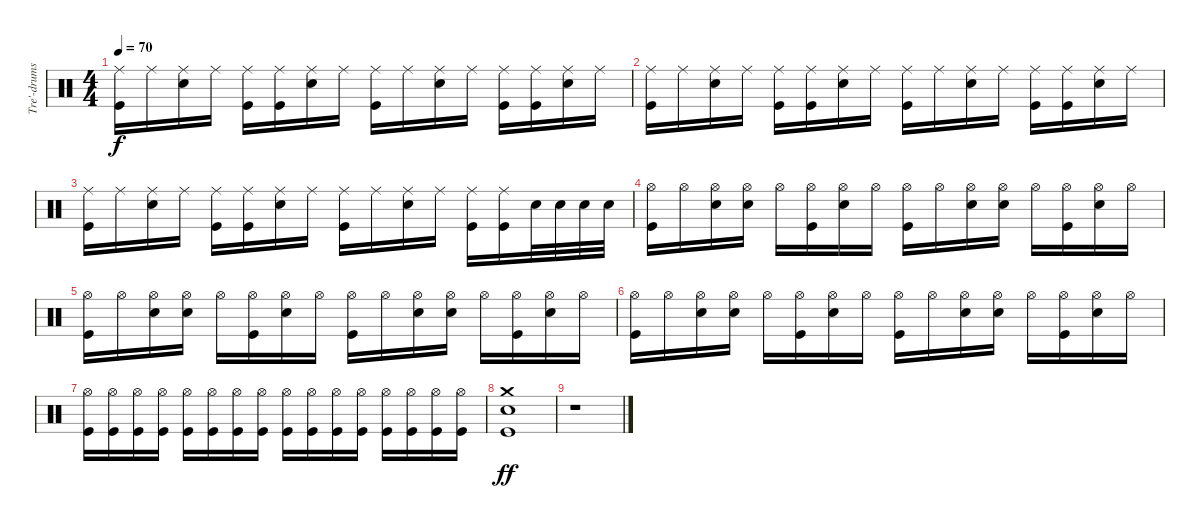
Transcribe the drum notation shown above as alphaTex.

\track ("Tre'-drums" "Tre'-drums") {instrument percussion}
\staff {score}
\articulation defaults
\ts (4 4)
\tempo 70
\clef neutral
\ks c
("Ride (middle)" "Kick (hit)").16{dy f} "Ride (middle)".16 ("Ride (middle)" "Snare (hit) 2").16 "Ride (middle)".16 ("Ride (middle)" "Kick (hit)").16 ("Ride (middle)" "Kick (hit)").16 ("Ride (middle)" "Snare (hit) 2").16 "Ride (middle)".16 ("Ride (middle)" "Kick (hit)").16 "Ride (middle)".16 ("Ride (middle)" "Snare (hit) 2").16 "Ride (middle)".16 ("Ride (middle)" "Kick (hit)").16 ("Ride (middle)" "Kick (hit)").16 ("Ride (middle)" "Snare (hit) 2").16 "Ride (middle)".16 |
("Ride (middle)" "Kick (hit)").16 "Ride (middle)".16 ("Ride (middle)" "Snare (hit) 2").16 "Ride (middle)".16 ("Ride (middle)" "Kick (hit)").16 ("Ride (middle)" "Kick (hit)").16 ("Ride (middle)" "Snare (hit) 2").16 "Ride (middle)".16 ("Ride (middle)" "Kick (hit)").16 "Ride (middle)".16 ("Ride (middle)" "Snare (hit) 2").16 "Ride (middle)".16 ("Ride (middle)" "Kick (hit)").16 ("Ride (middle)" "Kick (hit)").16 ("Ride (middle)" "Snare (hit) 2").16 "Ride (middle)".16 |
("Ride (middle)" "Kick (hit)").16 "Ride (middle)".16 ("Ride (middle)" "Snare (hit) 2").16 "Ride (middle)".16 ("Ride (middle)" "Kick (hit)").16 ("Ride (middle)" "Kick (hit)").16 ("Ride (middle)" "Snare (hit) 2").16 "Ride (middle)".16 ("Ride (middle)" "Kick (hit)").16 "Ride (middle)".16 ("Ride (middle)" "Snare (hit) 2").16 "Ride (middle)".16 ("Ride (middle)" "Kick (hit)").16 ("Ride (middle)" "Kick (hit)").16 "Snare (hit) 2".32 "Snare (hit) 2".32 "Snare (hit) 2".32 "Snare (hit) 2".32 |
("Hi-Hat (open)" "Kick (hit)").16 "Hi-Hat (open)".16 ("Hi-Hat (open)" "Snare (hit) 2").16 ("Hi-Hat (open)" "Snare (hit) 2").16 "Hi-Hat (open)".16 ("Hi-Hat (open)" "Kick (hit)").16 ("Hi-Hat (open)" "Snare (hit) 2").16 "Hi-Hat (open)".16 ("Hi-Hat (open)" "Kick (hit)").16 "Hi-Hat (open)".16 ("Hi-Hat (open)" "Snare (hit) 2").16 ("Hi-Hat (open)" "Snare (hit) 2").16 "Hi-Hat (open)".16 ("Hi-Hat (open)" "Kick (hit)").16 ("Hi-Hat (open)" "Snare (hit) 2").16 "Hi-Hat (open)".16 |
("Hi-Hat (open)" "Kick (hit)").16 "Hi-Hat (open)".16 ("Hi-Hat (open)" "Snare (hit) 2").16 ("Hi-Hat (open)" "Snare (hit) 2").16 "Hi-Hat (open)".16 ("Hi-Hat (open)" "Kick (hit)").16 ("Hi-Hat (open)" "Snare (hit) 2").16 "Hi-Hat (open)".16 ("Hi-Hat (open)" "Kick (hit)").16 "Hi-Hat (open)".16 ("Hi-Hat (open)" "Snare (hit) 2").16 ("Hi-Hat (open)" "Snare (hit) 2").16 "Hi-Hat (open)".16 ("Hi-Hat (open)" "Kick (hit)").16 ("Hi-Hat (open)" "Snare (hit) 2").16 "Hi-Hat (open)".16 |
("Hi-Hat (open)" "Kick (hit)").16 "Hi-Hat (open)".16 ("Hi-Hat (open)" "Snare (hit) 2").16 ("Hi-Hat (open)" "Snare (hit) 2").16 "Hi-Hat (open)".16 ("Hi-Hat (open)" "Kick (hit)").16 ("Hi-Hat (open)" "Snare (hit) 2").16 "Hi-Hat (open)".16 ("Hi-Hat (open)" "Kick (hit)").16 "Hi-Hat (open)".16 ("Hi-Hat (open)" "Snare (hit) 2").16 ("Hi-Hat (open)" "Snare (hit) 2").16 "Hi-Hat (open)".16 ("Hi-Hat (open)" "Kick (hit)").16 ("Hi-Hat (open)" "Snare (hit) 2").16 "Hi-Hat (open)".16 |
("Hi-Hat (open)" "Kick (hit)").16 ("Hi-Hat (open)" "Kick (hit)").16 ("Hi-Hat (open)" "Kick (hit)").16 ("Hi-Hat (open)" "Kick (hit)").16 ("Hi-Hat (open)" "Kick (hit)").16 ("Hi-Hat (open)" "Kick (hit)").16 ("Hi-Hat (open)" "Kick (hit)").16 ("Hi-Hat (open)" "Kick (hit)").16 ("Hi-Hat (open)" "Kick (hit)").16 ("Hi-Hat (open)" "Kick (hit)").16 ("Hi-Hat (open)" "Kick (hit)").16 ("Hi-Hat (open)" "Kick (hit)").16 ("Hi-Hat (open)" "Kick (hit)").16 ("Hi-Hat (open)" "Kick (hit)").16 ("Hi-Hat (open)" "Kick (hit)").16 ("Hi-Hat (open)" "Kick (hit)").16 |
("Kick (hit)" "Snare (hit) 2" "Crash medium (hit)").1{dy ff} |
r.1
